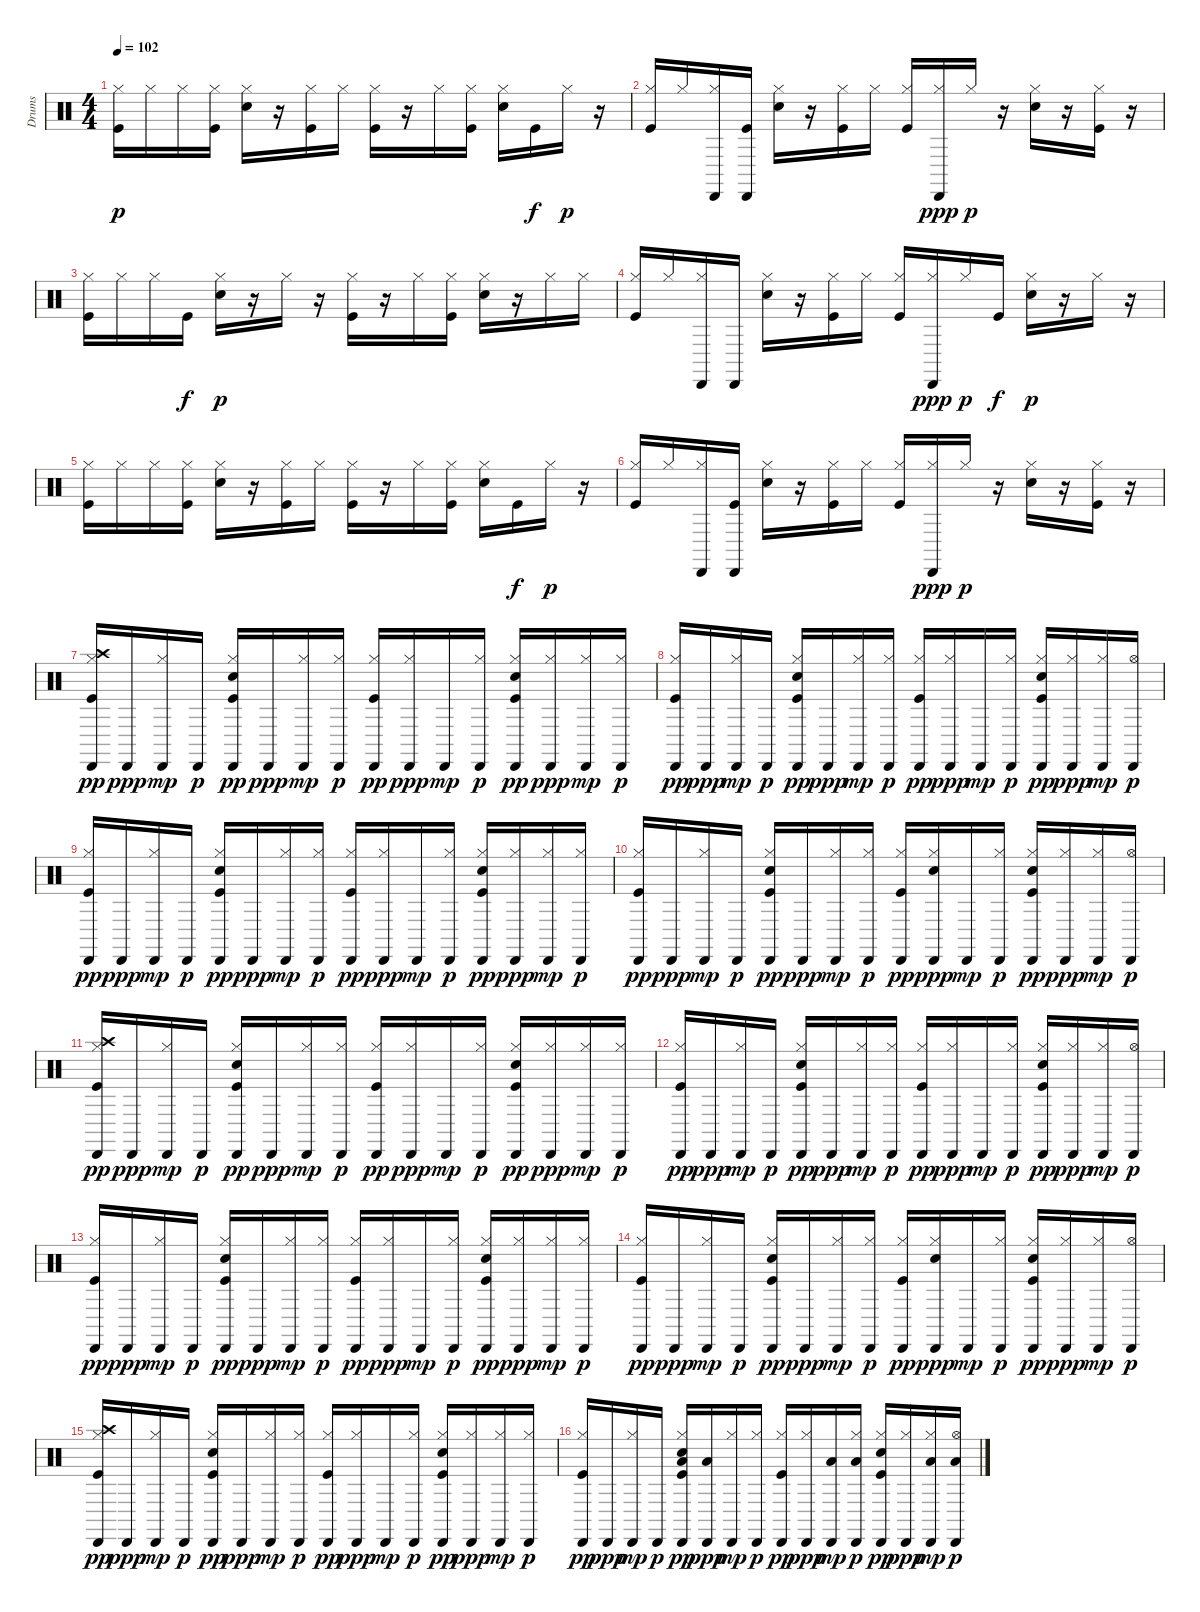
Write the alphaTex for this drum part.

\track ("Drums" "Drums") {instrument percussion}
\staff {score}
\articulation defaults
\ts (4 4)
\tempo 102
\clef neutral
\ks c
("Kick (hit)" "Hi-Hat (closed)").16{dy p} "Hi-Hat (closed)".16 "Hi-Hat (closed)".16 ("Kick (hit)" "Hi-Hat (closed)").16 ("Snare (hit) 2" "Hi-Hat (closed)").16 r.16 ("Kick (hit)" "Hi-Hat (closed)").16 "Hi-Hat (closed)".16 ("Kick (hit)" "Hi-Hat (closed)").16 r.16 "Hi-Hat (closed)".16 ("Kick (hit)" "Hi-Hat (closed)").16 ("Snare (hit) 2" "Hi-Hat (closed)").16 "Kick (hit)".16{dy f} "Hi-Hat (closed)".16{dy p} r.16 |
("Kick (hit)" "Hi-Hat (closed)").16 "Hi-Hat (closed)".16 ("Hi-Hat (closed)" "Cabasa (hit)").16 ("Kick (hit)" "Cabasa (hit)").16 ("Snare (hit) 2" "Hi-Hat (closed)").16 r.16 ("Kick (hit)" "Hi-Hat (closed)").16 "Hi-Hat (closed)".16 ("Kick (hit)" "Hi-Hat (closed)").16 ("Hi-Hat (closed)" "Cabasa (hit)").16{dy ppp} "Hi-Hat (closed)".16{dy p} r.16 ("Snare (hit) 2" "Hi-Hat (closed)").16 r.16 ("Kick (hit)" "Hi-Hat (closed)").16 r.16 |
("Kick (hit)" "Hi-Hat (closed)").16 "Hi-Hat (closed)".16 "Hi-Hat (closed)".16 "Kick (hit)".16{dy f} ("Snare (hit) 2" "Hi-Hat (closed)").16{dy p} r.16 "Hi-Hat (closed)".16 r.16 ("Kick (hit)" "Hi-Hat (closed)").16 r.16 "Hi-Hat (closed)".16 ("Kick (hit)" "Hi-Hat (closed)").16 ("Snare (hit) 2" "Hi-Hat (closed)").16 r.16 "Hi-Hat (closed)".16 "Hi-Hat (closed)".16 |
("Kick (hit)" "Hi-Hat (closed)").16 "Hi-Hat (closed)".16 ("Hi-Hat (closed)" "Cabasa (hit)").16 "Cabasa (hit)".16 ("Snare (hit) 2" "Hi-Hat (closed)").16 r.16 ("Kick (hit)" "Hi-Hat (closed)").16 "Hi-Hat (closed)".16 ("Kick (hit)" "Hi-Hat (closed)").16 ("Hi-Hat (closed)" "Cabasa (hit)").16{dy ppp} "Hi-Hat (closed)".16{dy p} "Kick (hit)".16{dy f} ("Snare (hit) 2" "Hi-Hat (closed)").16{dy p} r.16 "Hi-Hat (closed)".16 r.16 |
("Kick (hit)" "Hi-Hat (closed)").16 "Hi-Hat (closed)".16 "Hi-Hat (closed)".16 ("Kick (hit)" "Hi-Hat (closed)").16 ("Snare (hit) 2" "Hi-Hat (closed)").16 r.16 ("Kick (hit)" "Hi-Hat (closed)").16 "Hi-Hat (closed)".16 ("Kick (hit)" "Hi-Hat (closed)").16 r.16 "Hi-Hat (closed)".16 ("Kick (hit)" "Hi-Hat (closed)").16 ("Snare (hit) 2" "Hi-Hat (closed)").16 "Kick (hit)".16{dy f} "Hi-Hat (closed)".16{dy p} r.16 |
("Kick (hit)" "Hi-Hat (closed)").16 "Hi-Hat (closed)".16 ("Hi-Hat (closed)" "Cabasa (hit)").16 ("Kick (hit)" "Cabasa (hit)").16 ("Snare (hit) 2" "Hi-Hat (closed)").16 r.16 ("Kick (hit)" "Hi-Hat (closed)").16 "Hi-Hat (closed)".16 ("Kick (hit)" "Hi-Hat (closed)").16 ("Hi-Hat (closed)" "Cabasa (hit)").16{dy ppp} "Hi-Hat (closed)".16{dy p} r.16 ("Snare (hit) 2" "Hi-Hat (closed)").16 r.16 ("Kick (hit)" "Hi-Hat (closed)").16 r.16 |
("Kick (hit)" "Hi-Hat (closed)" "Crash high (hit)" "Cabasa (hit)").16{dy pp} "Cabasa (hit)".16{dy ppp} ("Hi-Hat (closed)" "Cabasa (hit)").16{dy mp} "Cabasa (hit)".16{dy p} ("Kick (hit)" "Snare (hit) 2" "Hi-Hat (closed)" "Cabasa (hit)").16{dy pp} "Cabasa (hit)".16{dy ppp} ("Hi-Hat (closed)" "Cabasa (hit)").16{dy mp} ("Hi-Hat (closed)" "Cabasa (hit)").16{dy p} ("Kick (hit)" "Hi-Hat (closed)" "Cabasa (hit)").16{dy pp} ("Hi-Hat (closed)" "Cabasa (hit)").16{dy ppp} "Cabasa (hit)".16{dy mp} ("Hi-Hat (closed)" "Cabasa (hit)").16{dy p} ("Kick (hit)" "Snare (hit) 2" "Hi-Hat (closed)" "Cabasa (hit)").16{dy pp} ("Hi-Hat (closed)" "Cabasa (hit)").16{dy ppp} ("Hi-Hat (closed)" "Cabasa (hit)").16{dy mp} ("Hi-Hat (closed)" "Cabasa (hit)").16{dy p} |
("Kick (hit)" "Hi-Hat (closed)" "Cabasa (hit)").16{dy pp} "Cabasa (hit)".16{dy ppp} ("Hi-Hat (closed)" "Cabasa (hit)").16{dy mp} "Cabasa (hit)".16{dy p} ("Kick (hit)" "Snare (hit) 2" "Hi-Hat (closed)" "Cabasa (hit)").16{dy pp} "Cabasa (hit)".16{dy ppp} ("Hi-Hat (closed)" "Cabasa (hit)").16{dy mp} ("Hi-Hat (closed)" "Cabasa (hit)").16{dy p} ("Kick (hit)" "Hi-Hat (closed)" "Cabasa (hit)").16{dy pp} ("Hi-Hat (closed)" "Cabasa (hit)").16{dy ppp} "Cabasa (hit)".16{dy mp} ("Hi-Hat (closed)" "Cabasa (hit)").16{dy p} ("Kick (hit)" "Snare (hit) 2" "Hi-Hat (closed)" "Cabasa (hit)").16{dy pp} ("Hi-Hat (closed)" "Cabasa (hit)").16{dy ppp} ("Hi-Hat (closed)" "Cabasa (hit)").16{dy mp} ("Hi-Hat (open)" "Cabasa (hit)").16{dy p} |
("Kick (hit)" "Hi-Hat (closed)" "Cabasa (hit)").16{dy pp} "Cabasa (hit)".16{dy ppp} ("Hi-Hat (closed)" "Cabasa (hit)").16{dy mp} "Cabasa (hit)".16{dy p} ("Kick (hit)" "Snare (hit) 2" "Hi-Hat (closed)" "Cabasa (hit)").16{dy pp} "Cabasa (hit)".16{dy ppp} ("Hi-Hat (closed)" "Cabasa (hit)").16{dy mp} ("Hi-Hat (closed)" "Cabasa (hit)").16{dy p} ("Kick (hit)" "Hi-Hat (closed)" "Cabasa (hit)").16{dy pp} ("Hi-Hat (closed)" "Cabasa (hit)").16{dy ppp} "Cabasa (hit)".16{dy mp} ("Hi-Hat (closed)" "Cabasa (hit)").16{dy p} ("Kick (hit)" "Snare (hit) 2" "Hi-Hat (closed)" "Cabasa (hit)").16{dy pp} ("Hi-Hat (closed)" "Cabasa (hit)").16{dy ppp} ("Hi-Hat (closed)" "Cabasa (hit)").16{dy mp} ("Hi-Hat (closed)" "Cabasa (hit)").16{dy p} |
("Kick (hit)" "Hi-Hat (closed)" "Cabasa (hit)").16{dy pp} "Cabasa (hit)".16{dy ppp} ("Hi-Hat (closed)" "Cabasa (hit)").16{dy mp} "Cabasa (hit)".16{dy p} ("Kick (hit)" "Snare (hit) 2" "Hi-Hat (closed)" "Cabasa (hit)").16{dy pp} "Cabasa (hit)".16{dy ppp} ("Hi-Hat (closed)" "Cabasa (hit)").16{dy mp} ("Hi-Hat (closed)" "Cabasa (hit)").16{dy p} ("Kick (hit)" "Hi-Hat (closed)" "Cabasa (hit)").16{dy pp} ("Snare (hit) 2" "Hi-Hat (closed)" "Cabasa (hit)").16{dy ppp} "Cabasa (hit)".16{dy mp} ("Hi-Hat (closed)" "Cabasa (hit)").16{dy p} ("Kick (hit)" "Snare (hit) 2" "Hi-Hat (closed)" "Cabasa (hit)").16{dy pp} ("Hi-Hat (closed)" "Cabasa (hit)").16{dy ppp} ("Hi-Hat (closed)" "Cabasa (hit)").16{dy mp} ("Hi-Hat (open)" "Cabasa (hit)").16{dy p} |
("Kick (hit)" "Hi-Hat (closed)" "Crash high (hit)" "Cabasa (hit)").16{dy pp} "Cabasa (hit)".16{dy ppp} ("Hi-Hat (closed)" "Cabasa (hit)").16{dy mp} "Cabasa (hit)".16{dy p} ("Kick (hit)" "Snare (hit) 2" "Hi-Hat (closed)" "Cabasa (hit)").16{dy pp} "Cabasa (hit)".16{dy ppp} ("Hi-Hat (closed)" "Cabasa (hit)").16{dy mp} ("Hi-Hat (closed)" "Cabasa (hit)").16{dy p} ("Kick (hit)" "Hi-Hat (closed)" "Cabasa (hit)").16{dy pp} ("Hi-Hat (closed)" "Cabasa (hit)").16{dy ppp} "Cabasa (hit)".16{dy mp} ("Hi-Hat (closed)" "Cabasa (hit)").16{dy p} ("Kick (hit)" "Snare (hit) 2" "Hi-Hat (closed)" "Cabasa (hit)").16{dy pp} ("Hi-Hat (closed)" "Cabasa (hit)").16{dy ppp} ("Hi-Hat (closed)" "Cabasa (hit)").16{dy mp} ("Hi-Hat (closed)" "Cabasa (hit)").16{dy p} |
("Kick (hit)" "Hi-Hat (closed)" "Cabasa (hit)").16{dy pp} "Cabasa (hit)".16{dy ppp} ("Hi-Hat (closed)" "Cabasa (hit)").16{dy mp} "Cabasa (hit)".16{dy p} ("Kick (hit)" "Snare (hit) 2" "Hi-Hat (closed)" "Cabasa (hit)").16{dy pp} "Cabasa (hit)".16{dy ppp} ("Hi-Hat (closed)" "Cabasa (hit)").16{dy mp} ("Hi-Hat (closed)" "Cabasa (hit)").16{dy p} ("Kick (hit)" "Hi-Hat (closed)" "Cabasa (hit)").16{dy pp} ("Hi-Hat (closed)" "Cabasa (hit)").16{dy ppp} "Cabasa (hit)".16{dy mp} ("Hi-Hat (closed)" "Cabasa (hit)").16{dy p} ("Kick (hit)" "Snare (hit) 2" "Hi-Hat (closed)" "Cabasa (hit)").16{dy pp} ("Hi-Hat (closed)" "Cabasa (hit)").16{dy ppp} ("Hi-Hat (closed)" "Cabasa (hit)").16{dy mp} ("Hi-Hat (open)" "Cabasa (hit)").16{dy p} |
("Kick (hit)" "Hi-Hat (closed)" "Cabasa (hit)").16{dy pp} "Cabasa (hit)".16{dy ppp} ("Hi-Hat (closed)" "Cabasa (hit)").16{dy mp} "Cabasa (hit)".16{dy p} ("Kick (hit)" "Snare (hit) 2" "Hi-Hat (closed)" "Cabasa (hit)").16{dy pp} "Cabasa (hit)".16{dy ppp} ("Hi-Hat (closed)" "Cabasa (hit)").16{dy mp} ("Hi-Hat (closed)" "Cabasa (hit)").16{dy p} ("Kick (hit)" "Hi-Hat (closed)" "Cabasa (hit)").16{dy pp} ("Hi-Hat (closed)" "Cabasa (hit)").16{dy ppp} "Cabasa (hit)".16{dy mp} ("Hi-Hat (closed)" "Cabasa (hit)").16{dy p} ("Kick (hit)" "Snare (hit) 2" "Hi-Hat (closed)" "Cabasa (hit)").16{dy pp} ("Hi-Hat (closed)" "Cabasa (hit)").16{dy ppp} ("Hi-Hat (closed)" "Cabasa (hit)").16{dy mp} ("Hi-Hat (closed)" "Cabasa (hit)").16{dy p} |
("Kick (hit)" "Hi-Hat (closed)" "Cabasa (hit)").16{dy pp} "Cabasa (hit)".16{dy ppp} ("Hi-Hat (closed)" "Cabasa (hit)").16{dy mp} "Cabasa (hit)".16{dy p} ("Kick (hit)" "Snare (hit) 2" "Hi-Hat (closed)" "Cabasa (hit)").16{dy pp} "Cabasa (hit)".16{dy ppp} ("Hi-Hat (closed)" "Cabasa (hit)").16{dy mp} ("Hi-Hat (closed)" "Cabasa (hit)").16{dy p} ("Kick (hit)" "Hi-Hat (closed)" "Cabasa (hit)").16{dy pp} ("Snare (hit) 2" "Hi-Hat (closed)" "Cabasa (hit)").16{dy ppp} "Cabasa (hit)".16{dy mp} ("Hi-Hat (closed)" "Cabasa (hit)").16{dy p} ("Kick (hit)" "Snare (hit) 2" "Hi-Hat (closed)" "Cabasa (hit)").16{dy pp} ("Hi-Hat (closed)" "Cabasa (hit)").16{dy ppp} ("Hi-Hat (closed)" "Cabasa (hit)").16{dy mp} ("Hi-Hat (open)" "Cabasa (hit)").16{dy p} |
("Kick (hit)" "Hi-Hat (closed)" "Crash high (hit)" "Cabasa (hit)").16{dy pp} "Cabasa (hit)".16{dy ppp} ("Hi-Hat (closed)" "Cabasa (hit)").16{dy mp} "Cabasa (hit)".16{dy p} ("Kick (hit)" "Snare (hit) 2" "Hi-Hat (closed)" "Cabasa (hit)").16{dy pp} "Cabasa (hit)".16{dy ppp} ("Hi-Hat (closed)" "Cabasa (hit)").16{dy mp} ("Hi-Hat (closed)" "Cabasa (hit)").16{dy p} ("Kick (hit)" "Hi-Hat (closed)" "Cabasa (hit)").16{dy pp} ("Hi-Hat (closed)" "Cabasa (hit)").16{dy ppp} "Cabasa (hit)".16{dy mp} ("Hi-Hat (closed)" "Cabasa (hit)").16{dy p} ("Kick (hit)" "Snare (hit) 2" "Hi-Hat (closed)" "Cabasa (hit)").16{dy pp} ("Hi-Hat (closed)" "Cabasa (hit)").16{dy ppp} ("Hi-Hat (closed)" "Cabasa (hit)").16{dy mp} ("Hi-Hat (closed)" "Cabasa (hit)").16{dy p} |
("Kick (hit)" "Hi-Hat (closed)" "Cabasa (hit)").16{dy pp} "Cabasa (hit)".16{dy ppp} ("Hi-Hat (closed)" "Cabasa (hit)").16{dy mp} "Cabasa (hit)".16{dy p} ("Kick (hit)" "Snare (hit) 2" "Hi-Hat (closed)" "Low Tom (hit)" "Cabasa (hit)").16{dy pp} ("Low Tom (hit)" "Cabasa (hit)").16{dy ppp} ("Hi-Hat (closed)" "Cabasa (hit)").16{dy mp} ("Hi-Hat (closed)" "Cabasa (hit)").16{dy p} ("Kick (hit)" "Hi-Hat (closed)" "Cabasa (hit)").16{dy pp} ("Hi-Hat (closed)" "Cabasa (hit)").16{dy ppp} ("Low Tom (hit)" "Cabasa (hit)").16{dy mp} ("Hi-Hat (closed)" "Low Tom (hit)" "Cabasa (hit)").16{dy p} ("Kick (hit)" "Snare (hit) 2" "Hi-Hat (closed)" "Cabasa (hit)").16{dy pp} ("Hi-Hat (closed)" "Cabasa (hit)").16{dy ppp} ("Low Floor Tom (hit)" "Hi-Hat (closed)" "Cabasa (hit)").16{dy mp} ("Low Floor Tom (hit)" "Hi-Hat (open)" "Cabasa (hit)").16{dy p}
